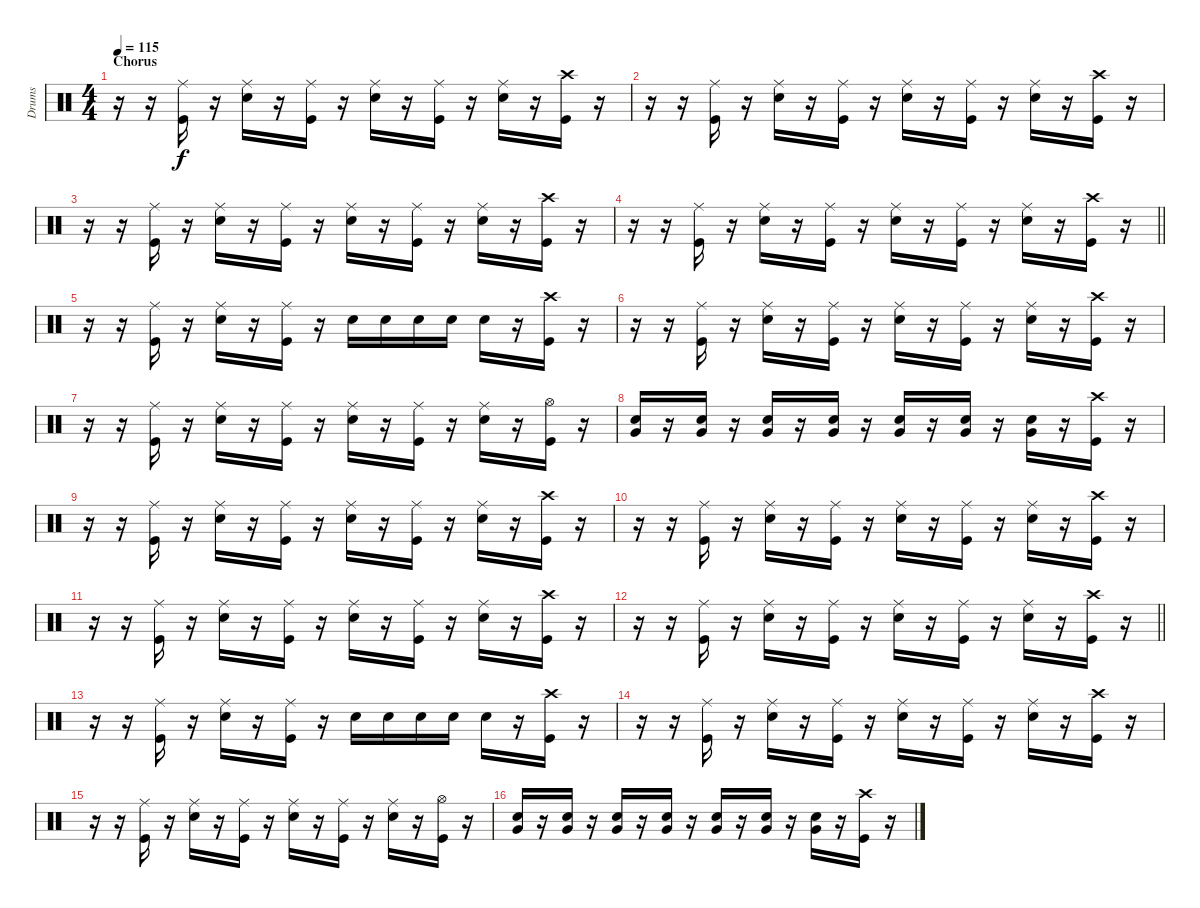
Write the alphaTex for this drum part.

\track ("Drums" "Drums") {instrument percussion}
\staff {score}
\articulation defaults
\ts (4 4)
\section ("" "Chorus")
\tempo 115
\clef neutral
\ks c
r.16{dy f} r.16 ("Ride (middle)" "Kick (hit)").16 r.16 ("Ride (middle)" "Snare (hit) 2").16 r.16 ("Ride (middle)" "Kick (hit)").16 r.16 ("Ride (middle)" "Snare (hit) 2").16 r.16 ("Ride (middle)" "Kick (hit)").16 r.16 ("Ride (middle)" "Snare (hit) 2").16 r.16 ("Crash high (hit)" "Kick (hit)").16 r.16 |
r.16 r.16 ("Ride (middle)" "Kick (hit)").16 r.16 ("Ride (middle)" "Snare (hit) 2").16 r.16 ("Ride (middle)" "Kick (hit)").16 r.16 ("Ride (middle)" "Snare (hit) 2").16 r.16 ("Ride (middle)" "Kick (hit)").16 r.16 ("Ride (middle)" "Snare (hit) 2").16 r.16 ("Crash high (hit)" "Kick (hit)").16 r.16 |
r.16 r.16 ("Ride (middle)" "Kick (hit)").16 r.16 ("Ride (middle)" "Snare (hit) 2").16 r.16 ("Ride (middle)" "Kick (hit)").16 r.16 ("Ride (middle)" "Snare (hit) 2").16 r.16 ("Ride (middle)" "Kick (hit)").16 r.16 ("Ride (middle)" "Snare (hit) 2").16 r.16 ("Crash high (hit)" "Kick (hit)").16 r.16 |
\barLineRight lightlight
r.16 r.16 ("Ride (middle)" "Kick (hit)").16 r.16 ("Ride (middle)" "Snare (hit) 2").16 r.16 ("Ride (middle)" "Kick (hit)").16 r.16 ("Ride (middle)" "Snare (hit) 2").16 r.16 ("Ride (middle)" "Kick (hit)").16 r.16 ("Ride (middle)" "Snare (hit) 2").16 r.16 ("Crash high (hit)" "Kick (hit)").16 r.16 |
r.16 r.16 ("Ride (middle)" "Kick (hit)").16 r.16 ("Ride (middle)" "Snare (hit) 2").16 r.16 ("Ride (middle)" "Kick (hit)").16 r.16 "Snare (hit) 2".16 "Snare (hit) 2".16 "Snare (hit) 2".16 "Snare (hit) 2".16 "Snare (hit) 2".16 r.16 ("Crash high (hit)" "Kick (hit)").16 r.16 |
r.16 r.16 ("Ride (middle)" "Kick (hit)").16 r.16 ("Ride (middle)" "Snare (hit) 2").16 r.16 ("Ride (middle)" "Kick (hit)").16 r.16 ("Ride (middle)" "Snare (hit) 2").16 r.16 ("Ride (middle)" "Kick (hit)").16 r.16 ("Ride (middle)" "Snare (hit) 2").16 r.16 ("Crash high (hit)" "Kick (hit)").16 r.16 |
r.16 r.16 ("Ride (middle)" "Kick (hit)").16 r.16 ("Ride (middle)" "Snare (hit) 2").16 r.16 ("Ride (middle)" "Kick (hit)").16 r.16 ("Ride (middle)" "Snare (hit) 2").16 r.16 ("Ride (middle)" "Kick (hit)").16 r.16 ("Ride (middle)" "Snare (hit) 2").16 r.16 ("Hi-Hat (open)" "Kick (hit)").16 r.16 |
("Very Low Tom (hit)" "Snare (hit) 2").16 r.16 ("Very Low Tom (hit)" "Snare (hit) 2").16 r.16 ("Very Low Tom (hit)" "Snare (hit) 2").16 r.16 ("Very Low Tom (hit)" "Snare (hit) 2").16 r.16 ("Very Low Tom (hit)" "Snare (hit) 2").16 r.16 ("Very Low Tom (hit)" "Snare (hit) 2").16 r.16 ("Very Low Tom (hit)" "Snare (hit) 2").16 r.16 ("Crash high (hit)" "Kick (hit)").16 r.16 |
r.16 r.16 ("Ride (middle)" "Kick (hit)").16 r.16 ("Ride (middle)" "Snare (hit) 2").16 r.16 ("Ride (middle)" "Kick (hit)").16 r.16 ("Ride (middle)" "Snare (hit) 2").16 r.16 ("Ride (middle)" "Kick (hit)").16 r.16 ("Ride (middle)" "Snare (hit) 2").16 r.16 ("Crash high (hit)" "Kick (hit)").16 r.16 |
r.16 r.16 ("Ride (middle)" "Kick (hit)").16 r.16 ("Ride (middle)" "Snare (hit) 2").16 r.16 ("Ride (middle)" "Kick (hit)").16 r.16 ("Ride (middle)" "Snare (hit) 2").16 r.16 ("Ride (middle)" "Kick (hit)").16 r.16 ("Ride (middle)" "Snare (hit) 2").16 r.16 ("Crash high (hit)" "Kick (hit)").16 r.16 |
r.16 r.16 ("Ride (middle)" "Kick (hit)").16 r.16 ("Ride (middle)" "Snare (hit) 2").16 r.16 ("Ride (middle)" "Kick (hit)").16 r.16 ("Ride (middle)" "Snare (hit) 2").16 r.16 ("Ride (middle)" "Kick (hit)").16 r.16 ("Ride (middle)" "Snare (hit) 2").16 r.16 ("Crash high (hit)" "Kick (hit)").16 r.16 |
\barLineRight lightlight
r.16 r.16 ("Ride (middle)" "Kick (hit)").16 r.16 ("Ride (middle)" "Snare (hit) 2").16 r.16 ("Ride (middle)" "Kick (hit)").16 r.16 ("Ride (middle)" "Snare (hit) 2").16 r.16 ("Ride (middle)" "Kick (hit)").16 r.16 ("Ride (middle)" "Snare (hit) 2").16 r.16 ("Crash high (hit)" "Kick (hit)").16 r.16 |
r.16 r.16 ("Ride (middle)" "Kick (hit)").16 r.16 ("Ride (middle)" "Snare (hit) 2").16 r.16 ("Ride (middle)" "Kick (hit)").16 r.16 "Snare (hit) 2".16 "Snare (hit) 2".16 "Snare (hit) 2".16 "Snare (hit) 2".16 "Snare (hit) 2".16 r.16 ("Crash high (hit)" "Kick (hit)").16 r.16 |
r.16 r.16 ("Ride (middle)" "Kick (hit)").16 r.16 ("Ride (middle)" "Snare (hit) 2").16 r.16 ("Ride (middle)" "Kick (hit)").16 r.16 ("Ride (middle)" "Snare (hit) 2").16 r.16 ("Ride (middle)" "Kick (hit)").16 r.16 ("Ride (middle)" "Snare (hit) 2").16 r.16 ("Crash high (hit)" "Kick (hit)").16 r.16 |
r.16 r.16 ("Ride (middle)" "Kick (hit)").16 r.16 ("Ride (middle)" "Snare (hit) 2").16 r.16 ("Ride (middle)" "Kick (hit)").16 r.16 ("Ride (middle)" "Snare (hit) 2").16 r.16 ("Ride (middle)" "Kick (hit)").16 r.16 ("Ride (middle)" "Snare (hit) 2").16 r.16 ("Hi-Hat (open)" "Kick (hit)").16 r.16 |
("Very Low Tom (hit)" "Snare (hit) 2").16 r.16 ("Very Low Tom (hit)" "Snare (hit) 2").16 r.16 ("Very Low Tom (hit)" "Snare (hit) 2").16 r.16 ("Very Low Tom (hit)" "Snare (hit) 2").16 r.16 ("Very Low Tom (hit)" "Snare (hit) 2").16 r.16 ("Very Low Tom (hit)" "Snare (hit) 2").16 r.16 ("Very Low Tom (hit)" "Snare (hit) 2").16 r.16 ("Crash high (hit)" "Kick (hit)").16 r.16
